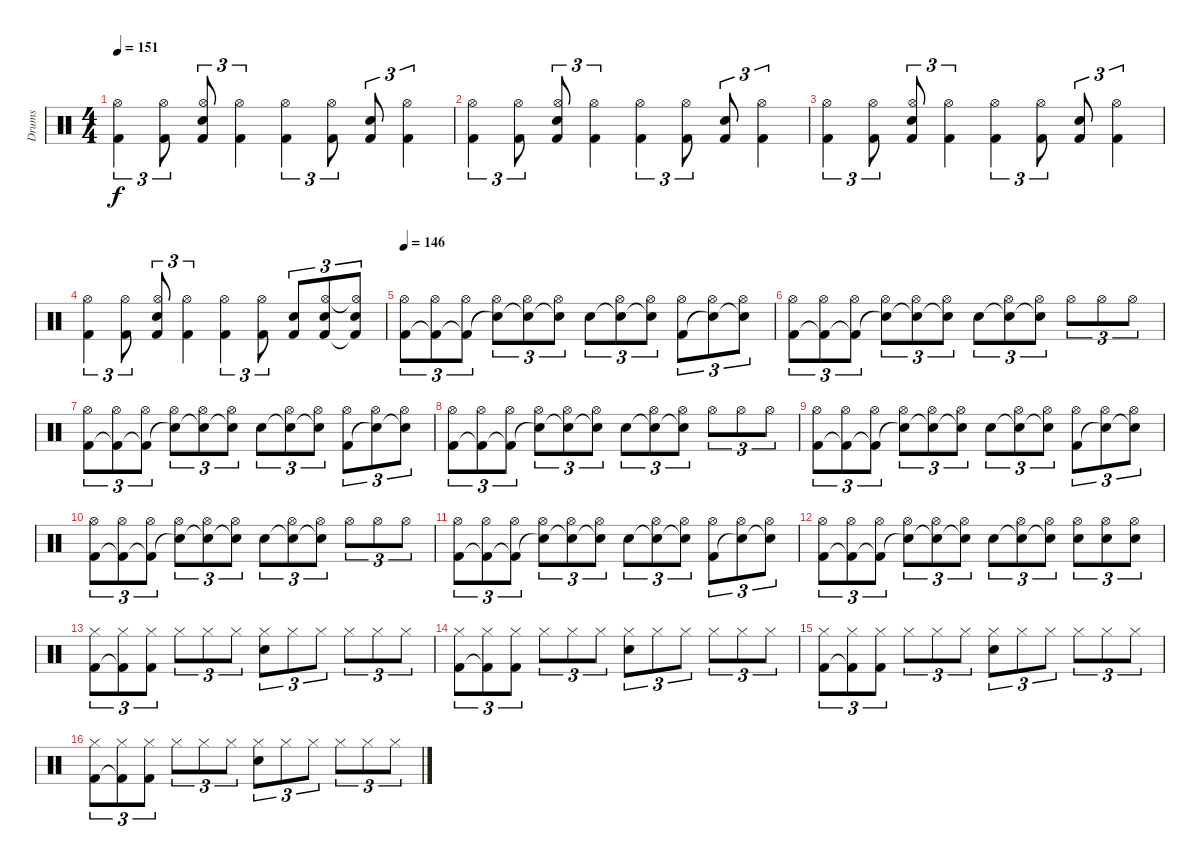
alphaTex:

\track ("Drums" "Drums") {instrument percussion}
\staff {score}
\articulation defaults
\ts (4 4)
\tempo 151
\clef neutral
\ks c
("Kick (hit) 2" "Hi-Hat (open)").4{tu (3 2) dy f} ("Kick (hit) 2" "Hi-Hat (open)").8{tu (3 2)} ("Electric Snare (hit)" "Kick (hit) 2" "Hi-Hat (open)").8{tu (3 2)} ("Kick (hit) 2" "Hi-Hat (open)").4{tu (3 2)} ("Kick (hit) 2" "Hi-Hat (open)").4{tu (3 2)} ("Kick (hit) 2" "Hi-Hat (open)").8{tu (3 2)} ("Electric Snare (hit)" "Kick (hit) 2").8{tu (3 2)} ("Kick (hit) 2" "Hi-Hat (open)").4{tu (3 2)} |
("Kick (hit) 2" "Hi-Hat (open)").4{tu (3 2)} ("Kick (hit) 2" "Hi-Hat (open)").8{tu (3 2)} ("Electric Snare (hit)" "Kick (hit) 2" "Hi-Hat (open)").8{tu (3 2)} ("Kick (hit) 2" "Hi-Hat (open)").4{tu (3 2)} ("Kick (hit) 2" "Hi-Hat (open)").4{tu (3 2)} ("Kick (hit) 2" "Hi-Hat (open)").8{tu (3 2)} ("Electric Snare (hit)" "Kick (hit) 2").8{tu (3 2)} ("Kick (hit) 2" "Hi-Hat (open)").4{tu (3 2)} |
("Kick (hit) 2" "Hi-Hat (open)").4{tu (3 2)} ("Kick (hit) 2" "Hi-Hat (open)").8{tu (3 2)} ("Electric Snare (hit)" "Kick (hit) 2" "Hi-Hat (open)").8{tu (3 2)} ("Kick (hit) 2" "Hi-Hat (open)").4{tu (3 2)} ("Kick (hit) 2" "Hi-Hat (open)").4{tu (3 2)} ("Kick (hit) 2" "Hi-Hat (open)").8{tu (3 2)} ("Electric Snare (hit)" "Kick (hit) 2").8{tu (3 2)} ("Kick (hit) 2" "Hi-Hat (open)").4{tu (3 2)} |
("Kick (hit) 2" "Hi-Hat (open)").4{tu (3 2)} ("Kick (hit) 2" "Hi-Hat (open)").8{tu (3 2)} ("Electric Snare (hit)" "Kick (hit) 2" "Hi-Hat (open)").8{tu (3 2)} ("Kick (hit) 2" "Hi-Hat (open)").4{tu (3 2)} ("Kick (hit) 2" "Hi-Hat (open)").4{tu (3 2)} ("Kick (hit) 2" "Hi-Hat (open)").8{tu (3 2)} ("Electric Snare (hit)" "Kick (hit) 2").8{tu (3 2)} ("Electric Snare (hit)" "Kick (hit) 2" "Hi-Hat (open)").8{tu (3 2)} ("Electric Snare (hit)" "Kick (hit) 2"{t} "Hi-Hat (open)"{t}).8{tu (3 2)} |
\tempo 146
("Kick (hit) 2" "Hi-Hat (open)").8{tu (3 2)} ("Kick (hit) 2"{t} "Hi-Hat (open)").8{tu (3 2)} ("Kick (hit) 2"{t} "Hi-Hat (open)").8{tu (3 2)} ("Snare (hit)"{t} "Hi-Hat (open)").8{tu (3 2)} ("Snare (hit)"{t} "Hi-Hat (open)").8{tu (3 2)} ("Snare (hit)"{t} "Hi-Hat (open)").8{tu (3 2)} "Electric Snare (hit)".8{tu (3 2)} ("Snare (hit)"{t} "Hi-Hat (open)").8{tu (3 2)} ("Snare (hit)"{t} "Hi-Hat (open)").8{tu (3 2)} ("Kick (hit) 2" "Hi-Hat (open)").8{tu (3 2)} ("Snare (hit)"{t} "Hi-Hat (open)").8{tu (3 2)} ("Snare (hit)"{t} "Hi-Hat (open)").8{tu (3 2)} |
("Kick (hit) 2" "Hi-Hat (open)").8{tu (3 2)} ("Kick (hit) 2"{t} "Hi-Hat (open)").8{tu (3 2)} ("Kick (hit) 2"{t} "Hi-Hat (open)").8{tu (3 2)} ("Snare (hit)"{t} "Hi-Hat (open)").8{tu (3 2)} ("Snare (hit)"{t} "Hi-Hat (open)").8{tu (3 2)} ("Snare (hit)"{t} "Hi-Hat (open)").8{tu (3 2)} "Electric Snare (hit)".8{tu (3 2)} ("Snare (hit)"{t} "Hi-Hat (open)").8{tu (3 2)} ("Snare (hit)"{t} "Hi-Hat (open)").8{tu (3 2)} "Hi-Hat (open)".8{tu (3 2)} "Hi-Hat (open)".8{tu (3 2)} "Hi-Hat (open)".8{tu (3 2)} |
("Kick (hit) 2" "Hi-Hat (open)").8{tu (3 2)} ("Kick (hit) 2"{t} "Hi-Hat (open)").8{tu (3 2)} ("Kick (hit) 2"{t} "Hi-Hat (open)").8{tu (3 2)} ("Snare (hit)"{t} "Hi-Hat (open)").8{tu (3 2)} ("Snare (hit)"{t} "Hi-Hat (open)").8{tu (3 2)} ("Snare (hit)"{t} "Hi-Hat (open)").8{tu (3 2)} "Electric Snare (hit)".8{tu (3 2)} ("Snare (hit)"{t} "Hi-Hat (open)").8{tu (3 2)} ("Snare (hit)"{t} "Hi-Hat (open)").8{tu (3 2)} ("Kick (hit) 2" "Hi-Hat (open)").8{tu (3 2)} ("Snare (hit)"{t} "Hi-Hat (open)").8{tu (3 2)} ("Snare (hit)"{t} "Hi-Hat (open)").8{tu (3 2)} |
("Kick (hit) 2" "Hi-Hat (open)").8{tu (3 2)} ("Kick (hit) 2"{t} "Hi-Hat (open)").8{tu (3 2)} ("Kick (hit) 2"{t} "Hi-Hat (open)").8{tu (3 2)} ("Snare (hit)"{t} "Hi-Hat (open)").8{tu (3 2)} ("Snare (hit)"{t} "Hi-Hat (open)").8{tu (3 2)} ("Snare (hit)"{t} "Hi-Hat (open)").8{tu (3 2)} "Electric Snare (hit)".8{tu (3 2)} ("Snare (hit)"{t} "Hi-Hat (open)").8{tu (3 2)} ("Snare (hit)"{t} "Hi-Hat (open)").8{tu (3 2)} "Hi-Hat (open)".8{tu (3 2)} "Hi-Hat (open)".8{tu (3 2)} "Hi-Hat (open)".8{tu (3 2)} |
("Kick (hit) 2" "Hi-Hat (open)").8{tu (3 2)} ("Kick (hit) 2"{t} "Hi-Hat (open)").8{tu (3 2)} ("Kick (hit) 2"{t} "Hi-Hat (open)").8{tu (3 2)} ("Snare (hit)"{t} "Hi-Hat (open)").8{tu (3 2)} ("Snare (hit)"{t} "Hi-Hat (open)").8{tu (3 2)} ("Snare (hit)"{t} "Hi-Hat (open)").8{tu (3 2)} "Electric Snare (hit)".8{tu (3 2)} ("Snare (hit)"{t} "Hi-Hat (open)").8{tu (3 2)} ("Snare (hit)"{t} "Hi-Hat (open)").8{tu (3 2)} ("Kick (hit) 2" "Hi-Hat (open)").8{tu (3 2)} ("Snare (hit)"{t} "Hi-Hat (open)").8{tu (3 2)} ("Snare (hit)"{t} "Hi-Hat (open)").8{tu (3 2)} |
("Kick (hit) 2" "Hi-Hat (open)").8{tu (3 2)} ("Kick (hit) 2"{t} "Hi-Hat (open)").8{tu (3 2)} ("Kick (hit) 2"{t} "Hi-Hat (open)").8{tu (3 2)} ("Snare (hit)"{t} "Hi-Hat (open)").8{tu (3 2)} ("Snare (hit)"{t} "Hi-Hat (open)").8{tu (3 2)} ("Snare (hit)"{t} "Hi-Hat (open)").8{tu (3 2)} "Electric Snare (hit)".8{tu (3 2)} ("Snare (hit)"{t} "Hi-Hat (open)").8{tu (3 2)} ("Snare (hit)"{t} "Hi-Hat (open)").8{tu (3 2)} "Hi-Hat (open)".8{tu (3 2)} "Hi-Hat (open)".8{tu (3 2)} "Hi-Hat (open)".8{tu (3 2)} |
("Kick (hit) 2" "Hi-Hat (open)").8{tu (3 2)} ("Kick (hit) 2"{t} "Hi-Hat (open)").8{tu (3 2)} ("Kick (hit) 2"{t} "Hi-Hat (open)").8{tu (3 2)} ("Snare (hit)"{t} "Hi-Hat (open)").8{tu (3 2)} ("Snare (hit)"{t} "Hi-Hat (open)").8{tu (3 2)} ("Snare (hit)"{t} "Hi-Hat (open)").8{tu (3 2)} "Electric Snare (hit)".8{tu (3 2)} ("Snare (hit)"{t} "Hi-Hat (open)").8{tu (3 2)} ("Snare (hit)"{t} "Hi-Hat (open)").8{tu (3 2)} ("Kick (hit) 2" "Hi-Hat (open)").8{tu (3 2)} ("Snare (hit)"{t} "Hi-Hat (open)").8{tu (3 2)} ("Snare (hit)"{t} "Hi-Hat (open)").8{tu (3 2)} |
("Kick (hit) 2" "Hi-Hat (open)").8{tu (3 2)} ("Kick (hit) 2"{t} "Hi-Hat (open)").8{tu (3 2)} ("Kick (hit) 2"{t} "Hi-Hat (open)").8{tu (3 2)} ("Snare (hit)"{t} "Hi-Hat (open)").8{tu (3 2)} ("Snare (hit)"{t} "Hi-Hat (open)").8{tu (3 2)} ("Snare (hit)"{t} "Hi-Hat (open)").8{tu (3 2)} "Electric Snare (hit)".8{tu (3 2)} ("Snare (hit)"{t} "Hi-Hat (open)").8{tu (3 2)} ("Snare (hit)"{t} "Hi-Hat (open)").8{tu (3 2)} ("Electric Snare (hit)" "Hi-Hat (open)").8{tu (3 2)} ("Electric Snare (hit)" "Hi-Hat (open)").8{tu (3 2)} ("Electric Snare (hit)" "Hi-Hat (open)").8{tu (3 2)} |
("Kick (hit) 2" "Hi-Hat (closed)").8{tu (3 2)} ("Kick (hit) 2"{t} "Hi-Hat (closed)").8{tu (3 2)} ("Kick (hit) 2" "Hi-Hat (closed)").8{tu (3 2)} "Hi-Hat (closed)".8{tu (3 2)} "Hi-Hat (closed)".8{tu (3 2)} "Hi-Hat (closed)".8{tu (3 2)} ("Electric Snare (hit)" "Hi-Hat (closed)").8{tu (3 2)} "Hi-Hat (closed)".8{tu (3 2)} "Hi-Hat (closed)".8{tu (3 2)} "Hi-Hat (closed)".8{tu (3 2)} "Hi-Hat (closed)".8{tu (3 2)} "Hi-Hat (closed)".8{tu (3 2)} |
("Kick (hit) 2" "Hi-Hat (closed)").8{tu (3 2)} ("Kick (hit) 2"{t} "Hi-Hat (closed)").8{tu (3 2)} ("Kick (hit) 2" "Hi-Hat (closed)").8{tu (3 2)} "Hi-Hat (closed)".8{tu (3 2)} "Hi-Hat (closed)".8{tu (3 2)} "Hi-Hat (closed)".8{tu (3 2)} ("Electric Snare (hit)" "Hi-Hat (closed)").8{tu (3 2)} "Hi-Hat (closed)".8{tu (3 2)} "Hi-Hat (closed)".8{tu (3 2)} "Hi-Hat (closed)".8{tu (3 2)} "Hi-Hat (closed)".8{tu (3 2)} "Hi-Hat (closed)".8{tu (3 2)} |
("Kick (hit) 2" "Hi-Hat (closed)").8{tu (3 2)} ("Kick (hit) 2"{t} "Hi-Hat (closed)").8{tu (3 2)} ("Kick (hit) 2" "Hi-Hat (closed)").8{tu (3 2)} "Hi-Hat (closed)".8{tu (3 2)} "Hi-Hat (closed)".8{tu (3 2)} "Hi-Hat (closed)".8{tu (3 2)} ("Electric Snare (hit)" "Hi-Hat (closed)").8{tu (3 2)} "Hi-Hat (closed)".8{tu (3 2)} "Hi-Hat (closed)".8{tu (3 2)} "Hi-Hat (closed)".8{tu (3 2)} "Hi-Hat (closed)".8{tu (3 2)} "Hi-Hat (closed)".8{tu (3 2)} |
("Kick (hit) 2" "Hi-Hat (closed)").8{tu (3 2)} ("Kick (hit) 2"{t} "Hi-Hat (closed)").8{tu (3 2)} ("Kick (hit) 2" "Hi-Hat (closed)").8{tu (3 2)} "Hi-Hat (closed)".8{tu (3 2)} "Hi-Hat (closed)".8{tu (3 2)} "Hi-Hat (closed)".8{tu (3 2)} ("Electric Snare (hit)" "Hi-Hat (closed)").8{tu (3 2)} "Hi-Hat (closed)".8{tu (3 2)} "Hi-Hat (closed)".8{tu (3 2)} "Hi-Hat (closed)".8{tu (3 2)} "Hi-Hat (closed)".8{tu (3 2)} "Hi-Hat (closed)".8{tu (3 2)}
